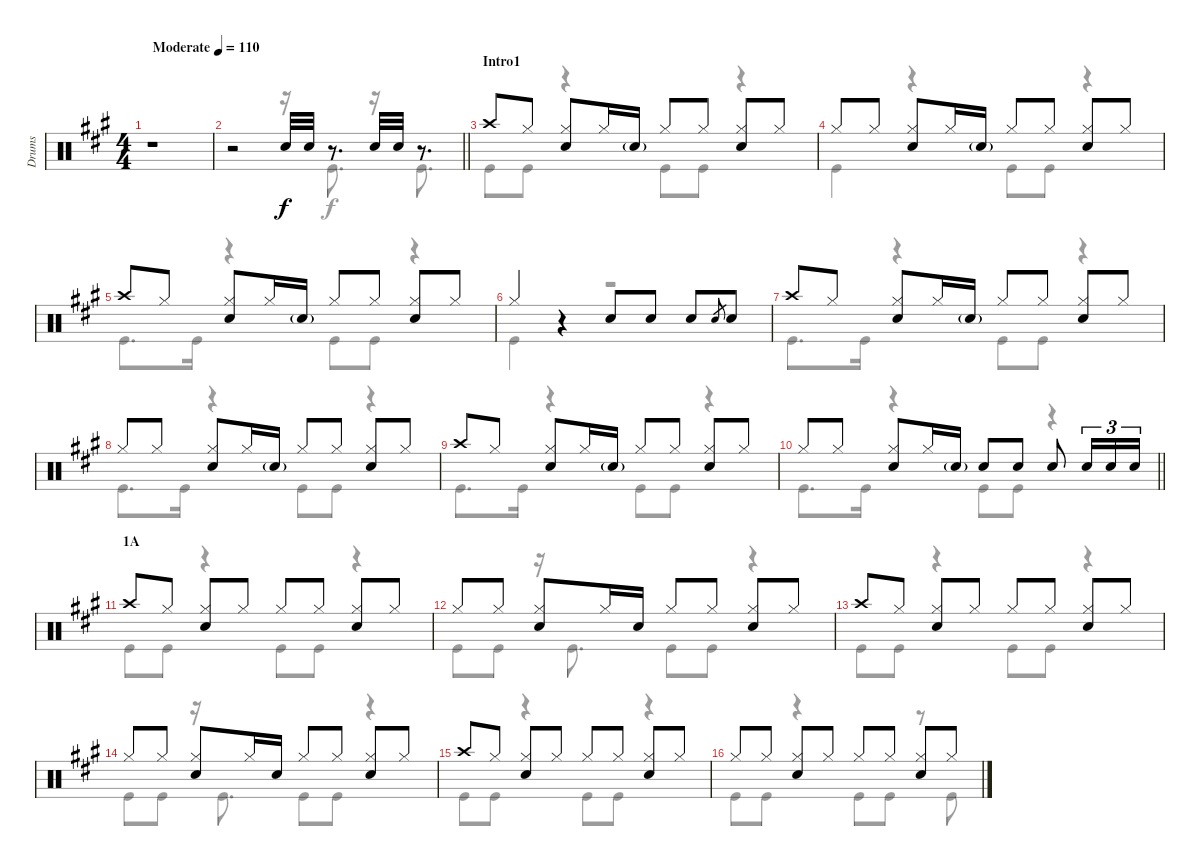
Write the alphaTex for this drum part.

\track ("Drums" "Drums") {instrument percussion}
\staff {score}
\articulation defaults
\voice
\ts (4 4)
\tempo (110 "Moderate")
\clef neutral
\ks a
r.1{dy f} |
\barLineRight lightlight
r.2 "Snare (hit) 2".32 "Snare (hit) 2".32 r.8{d} "Snare (hit) 2".32 "Snare (hit) 2".32 r.8{d} |
\section ("" "Intro1")
"Crash high (hit)".8 "Hi-Hat (closed)".8 ("Hi-Hat (closed)" "Snare (hit) 2").8 "Hi-Hat (closed)".16 "Snare (hit) 2"{g}.16 "Hi-Hat (closed)".8 "Hi-Hat (closed)".8 ("Hi-Hat (closed)" "Snare (hit) 2").8 "Hi-Hat (closed)".8 |
"Hi-Hat (closed)".8 "Hi-Hat (closed)".8 ("Hi-Hat (closed)" "Snare (hit) 2").8 "Hi-Hat (closed)".16 "Snare (hit) 2"{g}.16 "Hi-Hat (closed)".8 "Hi-Hat (closed)".8 ("Hi-Hat (closed)" "Snare (hit) 2").8 "Hi-Hat (closed)".8 |
"Crash high (hit)".8 "Hi-Hat (closed)".8 ("Hi-Hat (closed)" "Snare (hit) 2").8 "Hi-Hat (closed)".16 "Snare (hit) 2"{g}.16 "Hi-Hat (closed)".8 "Hi-Hat (closed)".8 ("Hi-Hat (closed)" "Snare (hit) 2").8 "Hi-Hat (closed)".8 |
"Hi-Hat (closed)".4 r.4 "Snare (hit) 2".8 "Snare (hit) 2".8 "Snare (hit) 2".8 "Snare (hit) 2".8{gr} "Snare (hit) 2".8 |
"Crash high (hit)".8 "Hi-Hat (closed)".8 ("Hi-Hat (closed)" "Snare (hit) 2").8 "Hi-Hat (closed)".16 "Snare (hit) 2"{g}.16 "Hi-Hat (closed)".8 "Hi-Hat (closed)".8 ("Hi-Hat (closed)" "Snare (hit) 2").8 "Hi-Hat (closed)".8 |
"Hi-Hat (closed)".8 "Hi-Hat (closed)".8 ("Hi-Hat (closed)" "Snare (hit) 2").8 "Hi-Hat (closed)".16 "Snare (hit) 2"{g}.16 "Hi-Hat (closed)".8 "Hi-Hat (closed)".8 ("Hi-Hat (closed)" "Snare (hit) 2").8 "Hi-Hat (closed)".8 |
"Crash high (hit)".8 "Hi-Hat (closed)".8 ("Hi-Hat (closed)" "Snare (hit) 2").8 "Hi-Hat (closed)".16 "Snare (hit) 2"{g}.16 "Hi-Hat (closed)".8 "Hi-Hat (closed)".8 ("Hi-Hat (closed)" "Snare (hit) 2").8 "Hi-Hat (closed)".8 |
\barLineRight lightlight "Hi-Hat (closed)".8 "Hi-Hat (closed)".8
("Hi-Hat (closed)" "Snare (hit) 2").8 "Hi-Hat (closed)".16 "Snare (hit) 2"{g}.16 "Snare (hit) 2".8 "Snare (hit) 2".8 "Snare (hit) 2".8 "Snare (hit) 2".16{tu (3 2)} "Snare (hit) 2".16{tu (3 2)} "Snare (hit) 2".16{tu (3 2)} |
\section ("" "1A")
"Crash high (hit)".8 "Hi-Hat (closed)".8 ("Hi-Hat (closed)" "Snare (hit) 2").8 "Hi-Hat (closed)".8 "Hi-Hat (closed)".8 "Hi-Hat (closed)".8 ("Hi-Hat (closed)" "Snare (hit) 2").8 "Hi-Hat (closed)".8 |
"Hi-Hat (closed)".8 "Hi-Hat (closed)".8 ("Hi-Hat (closed)" "Snare (hit) 2").8 "Hi-Hat (closed)".16 "Snare (hit) 2".16 "Hi-Hat (closed)".8 "Hi-Hat (closed)".8 ("Hi-Hat (closed)" "Snare (hit) 2").8 "Hi-Hat (closed)".8 |
"Crash high (hit)".8 "Hi-Hat (closed)".8 ("Hi-Hat (closed)" "Snare (hit) 2").8 "Hi-Hat (closed)".8 "Hi-Hat (closed)".8 "Hi-Hat (closed)".8 ("Hi-Hat (closed)" "Snare (hit) 2").8 "Hi-Hat (closed)".8 |
"Hi-Hat (closed)".8 "Hi-Hat (closed)".8 ("Hi-Hat (closed)" "Snare (hit) 2").8 "Hi-Hat (closed)".16 "Snare (hit) 2".16 "Hi-Hat (closed)".8 "Hi-Hat (closed)".8 ("Hi-Hat (closed)" "Snare (hit) 2").8 "Hi-Hat (closed)".8 |
"Crash high (hit)".8 "Hi-Hat (closed)".8 ("Hi-Hat (closed)" "Snare (hit) 2").8 "Hi-Hat (closed)".8 "Hi-Hat (closed)".8 "Hi-Hat (closed)".8 ("Hi-Hat (closed)" "Snare (hit) 2").8 "Hi-Hat (closed)".8 |
"Hi-Hat (closed)".8 "Hi-Hat (closed)".8 ("Hi-Hat (closed)" "Snare (hit) 2").8 "Hi-Hat (closed)".8 "Hi-Hat (closed)".8 "Hi-Hat (closed)".8 ("Hi-Hat (closed)" "Snare (hit) 2").8 "Hi-Hat (closed)".8
\voice
\clef neutral
\ottava regular
\simile none
\ks a
r.1{dy f} |
\barLineRight lightlight
r.2 r.16 "Kick (hit)".8{d} r.16 "Kick (hit)".8{d} |
"Kick (hit)".8 "Kick (hit)".8 r.4 "Kick (hit)".8 "Kick (hit)".8 r.4 |
"Kick (hit)".4 r.4 "Kick (hit)".8 "Kick (hit)".8 r.4 |
"Kick (hit)".8{d} "Kick (hit)".16 r.4 "Kick (hit)".8 "Kick (hit)".8 r.4 |
"Kick (hit)".4 r.4 r.2 |
"Kick (hit)".8{d} "Kick (hit)".16 r.4 "Kick (hit)".8 "Kick (hit)".8 r.4 |
"Kick (hit)".8{d} "Kick (hit)".16 r.4 "Kick (hit)".8 "Kick (hit)".8 r.4 |
"Kick (hit)".8{d} "Kick (hit)".16 r.4 "Kick (hit)".8 "Kick (hit)".8 r.4 |
\barLineRight lightlight "Kick (hit)".8{d} "Kick (hit)".16
r.4 "Kick (hit)".8 "Kick (hit)".8 r.4 |
"Kick (hit)".8 "Kick (hit)".8 r.4 "Kick (hit)".8 "Kick (hit)".8 r.4 |
"Kick (hit)".8 "Kick (hit)".8 r.16 "Kick (hit)".8{d} "Kick (hit)".8 "Kick (hit)".8 r.4 |
"Kick (hit)".8 "Kick (hit)".8 r.4 "Kick (hit)".8 "Kick (hit)".8 r.4 |
"Kick (hit)".8 "Kick (hit)".8 r.16 "Kick (hit)".8{d} "Kick (hit)".8 "Kick (hit)".8 r.4 |
"Kick (hit)".8 "Kick (hit)".8 r.4 "Kick (hit)".8 "Kick (hit)".8 r.4 |
"Kick (hit)".8 "Kick (hit)".8 r.4 "Kick (hit)".8 "Kick (hit)".8 r.8 "Kick (hit)".8
